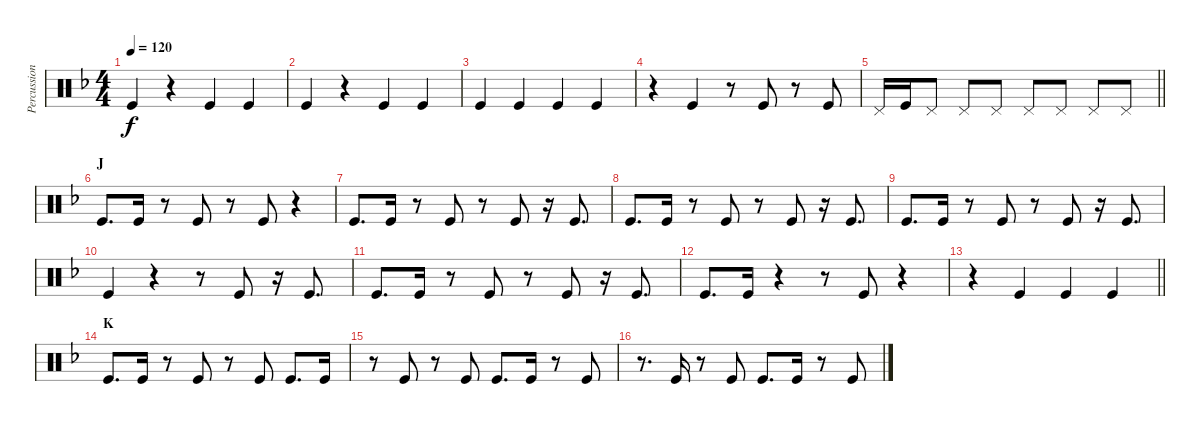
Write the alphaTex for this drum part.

\track ("Percussion foot" "Percussion") {instrument percussion}
\staff {score}
\articulation defaults
\ts (4 4)
\tempo 120
\clef neutral
\ks f "Kick (hit)".4{dy f}
r.4 "Kick (hit)".4 "Kick (hit)".4 |
"Kick (hit)".4 r.4 "Kick (hit)".4 "Kick (hit)".4 |
"Kick (hit)".4 "Kick (hit)".4 "Kick (hit)".4 "Kick (hit)".4 |
r.4 "Kick (hit)".4 r.8 "Kick (hit)".8 r.8 "Kick (hit)".8 |
\barLineRight lightlight "Pedal Hi-Hat (hit)".16 "Kick (hit)".16 "Pedal Hi-Hat (hit)".8 "Pedal Hi-Hat (hit)".8 "Pedal Hi-Hat (hit)".8 "Pedal Hi-Hat (hit)".8 "Pedal Hi-Hat (hit)".8 "Pedal Hi-Hat (hit)".8 "Pedal Hi-Hat (hit)".8
|
\section ("" "J")
"Kick (hit)".8{d} "Kick (hit)".16 r.8 "Kick (hit)".8 r.8 "Kick (hit)".8 r.4 |
"Kick (hit)".8{d} "Kick (hit)".16 r.8 "Kick (hit)".8 r.8 "Kick (hit)".8 r.16 "Kick (hit)".8{d} |
"Kick (hit)".8{d} "Kick (hit)".16 r.8 "Kick (hit)".8 r.8 "Kick (hit)".8 r.16 "Kick (hit)".8{d} |
"Kick (hit)".8{d} "Kick (hit)".16 r.8 "Kick (hit)".8 r.8 "Kick (hit)".8 r.16 "Kick (hit)".8{d} |
"Kick (hit)".4 r.4 r.8 "Kick (hit)".8 r.16 "Kick (hit)".8{d} |
"Kick (hit)".8{d} "Kick (hit)".16 r.8 "Kick (hit)".8 r.8 "Kick (hit)".8 r.16 "Kick (hit)".8{d} |
"Kick (hit)".8{d} "Kick (hit)".16 r.4 r.8 "Kick (hit)".8 r.4 |
\barLineRight lightlight
r.4 "Kick (hit)".4 "Kick (hit)".4 "Kick (hit)".4 |
\section ("" "K")
"Kick (hit)".8{d} "Kick (hit)".16 r.8 "Kick (hit)".8 r.8 "Kick (hit)".8 "Kick (hit)".8{d} "Kick (hit)".16 |
r.8 "Kick (hit)".8 r.8 "Kick (hit)".8 "Kick (hit)".8{d} "Kick (hit)".16 r.8 "Kick (hit)".8 |
r.8{d} "Kick (hit)".16 r.8 "Kick (hit)".8 "Kick (hit)".8{d} "Kick (hit)".16 r.8 "Kick (hit)".8
